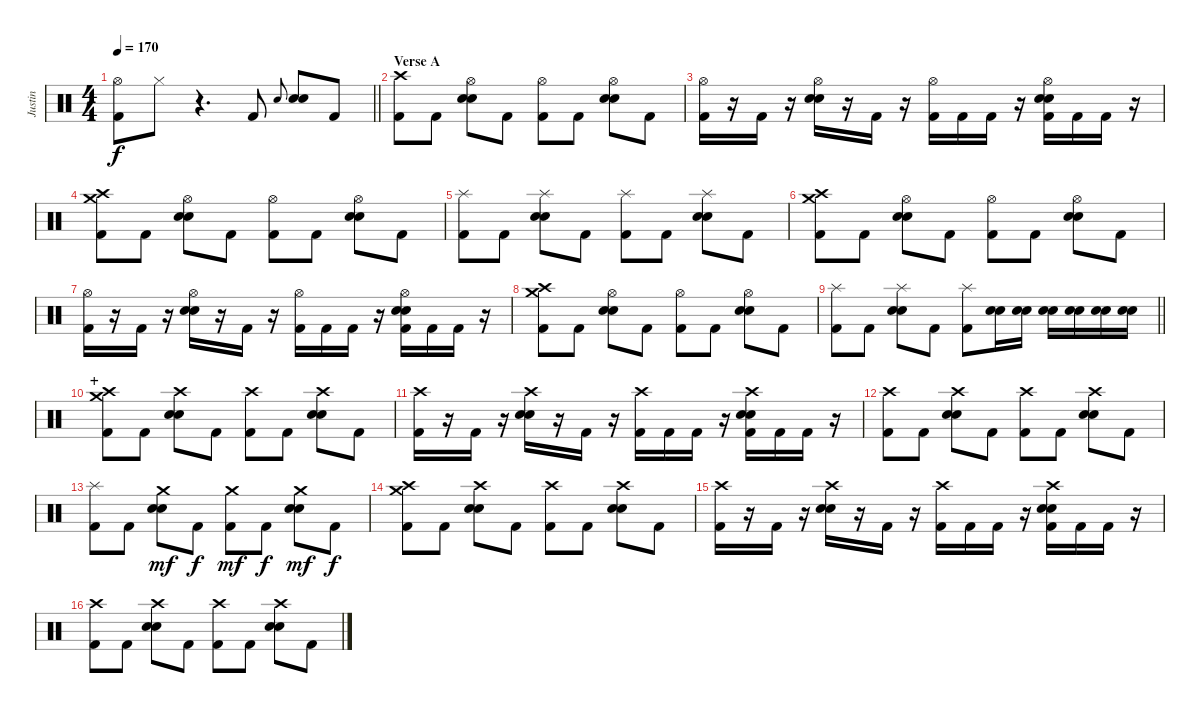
\track ("Justin" "Justin") {instrument percussion}
\staff {score}
\articulation defaults
\ts (4 4)
\tempo 170
\clef neutral
\barLineRight lightlight
\ks c
("Hi-Hat (open)" "Kick (hit) 2").8{dy f} "Hi-Hat (closed)".8 r.4{d} "Kick (hit) 2".8 "Snare (hit) 2".8{gr onbeat} ("Electric Snare (hit)" "Snare (hit) 2").8 "Kick (hit) 2".8 |
\section ("" "Verse A")
("Crash high (hit)" "Kick (hit) 2").8 "Kick (hit) 2".8 ("Hi-Hat (open)" "Electric Snare (hit)" "Snare (hit) 2").8 "Kick (hit) 2".8 ("Hi-Hat (open)" "Kick (hit) 2").8 "Kick (hit) 2".8 ("Hi-Hat (open)" "Electric Snare (hit)" "Snare (hit) 2").8 "Kick (hit) 2".8 |
("Hi-Hat (open)" "Kick (hit) 2").16 r.16 "Kick (hit) 2".16 r.16 ("Hi-Hat (open)" "Electric Snare (hit)" "Snare (hit) 2").16 r.16 "Kick (hit) 2".16 r.16 ("Hi-Hat (open)" "Kick (hit) 2").16 "Kick (hit) 2".16 "Kick (hit) 2".16 r.16 ("Hi-Hat (open)" "Electric Snare (hit)" "Snare (hit) 2" "Kick (hit) 2").16 "Kick (hit) 2".16 "Kick (hit) 2".16 r.16 |
("Crash high (hit)" "Crash medium (hit)" "Kick (hit) 2").8 "Kick (hit) 2".8 ("Hi-Hat (open)" "Electric Snare (hit)" "Snare (hit) 2").8 "Kick (hit) 2".8 ("Hi-Hat (open)" "Kick (hit) 2").8 "Kick (hit) 2".8 ("Hi-Hat (open)" "Electric Snare (hit)" "Snare (hit) 2").8 "Kick (hit) 2".8 |
("Splash (hit)" "Kick (hit) 2").8 "Kick (hit) 2".8 ("Splash (hit)" "Electric Snare (hit)" "Snare (hit) 2").8 "Kick (hit) 2".8 ("Splash (hit)" "Kick (hit) 2").8 "Kick (hit) 2".8 ("Splash (hit)" "Electric Snare (hit)" "Snare (hit) 2").8 "Kick (hit) 2".8 |
("Crash high (hit)" "Crash medium (hit)" "Kick (hit) 2").8 "Kick (hit) 2".8 ("Hi-Hat (open)" "Electric Snare (hit)" "Snare (hit) 2").8 "Kick (hit) 2".8 ("Hi-Hat (open)" "Kick (hit) 2").8 "Kick (hit) 2".8 ("Hi-Hat (open)" "Electric Snare (hit)" "Snare (hit) 2").8 "Kick (hit) 2".8 |
("Hi-Hat (open)" "Kick (hit) 2").16 r.16 "Kick (hit) 2".16 r.16 ("Hi-Hat (open)" "Electric Snare (hit)" "Snare (hit) 2").16 r.16 "Kick (hit) 2".16 r.16 ("Hi-Hat (open)" "Kick (hit) 2").16 "Kick (hit) 2".16 "Kick (hit) 2".16 r.16 ("Hi-Hat (open)" "Electric Snare (hit)" "Snare (hit) 2" "Kick (hit) 2").16 "Kick (hit) 2".16 "Kick (hit) 2".16 r.16 |
("Crash high (hit)" "Crash medium (hit)" "Kick (hit) 2").8 "Kick (hit) 2".8 ("Hi-Hat (open)" "Electric Snare (hit)" "Snare (hit) 2").8 "Kick (hit) 2".8 ("Hi-Hat (open)" "Kick (hit) 2").8 "Kick (hit) 2".8 ("Hi-Hat (open)" "Electric Snare (hit)" "Snare (hit) 2").8 "Kick (hit) 2".8 |
\barLineRight lightlight
("Splash (hit)" "Kick (hit) 2").8 "Kick (hit) 2".8 ("Splash (hit)" "Electric Snare (hit)" "Snare (hit) 2").8 "Kick (hit) 2".8 ("Splash (hit)" "Kick (hit) 2").8 ("Electric Snare (hit)" "Snare (hit) 2").16 ("Electric Snare (hit)" "Snare (hit) 2").16 ("Electric Snare (hit)" "Snare (hit) 2").16 ("Electric Snare (hit)" "Snare (hit) 2").16 ("Electric Snare (hit)" "Snare (hit) 2").16 ("Electric Snare (hit)" "Snare (hit) 2").16 |
\section ("" "+")
("Crash high (hit)" "Crash medium (hit)" "Kick (hit) 2").8 "Kick (hit) 2".8 ("Crash high (hit)" "Electric Snare (hit)" "Snare (hit) 2").8 "Kick (hit) 2".8 ("Crash high (hit)" "Kick (hit) 2").8 "Kick (hit) 2".8 ("Crash high (hit)" "Electric Snare (hit)" "Snare (hit) 2").8 "Kick (hit) 2".8 |
("Crash high (hit)" "Kick (hit) 2").16 r.16 "Kick (hit) 2".16 r.16 ("Crash high (hit)" "Electric Snare (hit)" "Snare (hit) 2").16 r.16 "Kick (hit) 2".16 r.16 ("Crash high (hit)" "Kick (hit) 2").16 "Kick (hit) 2".16 "Kick (hit) 2".16 r.16 ("Crash high (hit)" "Electric Snare (hit)" "Snare (hit) 2" "Kick (hit) 2").16 "Kick (hit) 2".16 "Kick (hit) 2".16 r.16 |
("Crash high (hit)" "Kick (hit) 2").8 "Kick (hit) 2".8 ("Crash high (hit)" "Electric Snare (hit)" "Snare (hit) 2").8 "Kick (hit) 2".8 ("Crash high (hit)" "Kick (hit) 2").8 "Kick (hit) 2".8 ("Crash high (hit)" "Electric Snare (hit)" "Snare (hit) 2").8 "Kick (hit) 2".8 |
("Splash (hit)" "Kick (hit) 2").8 "Kick (hit) 2".8 ("Crash medium (hit)" "Electric Snare (hit)" "Snare (hit) 2").8{dy mf} "Kick (hit) 2".8{dy f} ("Crash medium (hit)" "Kick (hit) 2").8{dy mf} "Kick (hit) 2".8{dy f} ("Crash medium (hit)" "Electric Snare (hit)" "Snare (hit) 2").8{dy mf} "Kick (hit) 2".8{dy f} |
("Crash high (hit)" "Crash medium (hit)" "Kick (hit) 2").8 "Kick (hit) 2".8 ("Crash high (hit)" "Electric Snare (hit)" "Snare (hit) 2").8 "Kick (hit) 2".8 ("Crash high (hit)" "Kick (hit) 2").8 "Kick (hit) 2".8 ("Crash high (hit)" "Electric Snare (hit)" "Snare (hit) 2").8 "Kick (hit) 2".8 |
("Crash high (hit)" "Kick (hit) 2").16 r.16 "Kick (hit) 2".16 r.16 ("Crash high (hit)" "Electric Snare (hit)" "Snare (hit) 2").16 r.16 "Kick (hit) 2".16 r.16 ("Crash high (hit)" "Kick (hit) 2").16 "Kick (hit) 2".16 "Kick (hit) 2".16 r.16 ("Crash high (hit)" "Electric Snare (hit)" "Snare (hit) 2" "Kick (hit) 2").16 "Kick (hit) 2".16 "Kick (hit) 2".16 r.16 |
("Crash high (hit)" "Kick (hit) 2").8 "Kick (hit) 2".8 ("Crash high (hit)" "Electric Snare (hit)" "Snare (hit) 2").8 "Kick (hit) 2".8 ("Crash high (hit)" "Kick (hit) 2").8 "Kick (hit) 2".8 ("Crash high (hit)" "Electric Snare (hit)" "Snare (hit) 2").8 "Kick (hit) 2".8
